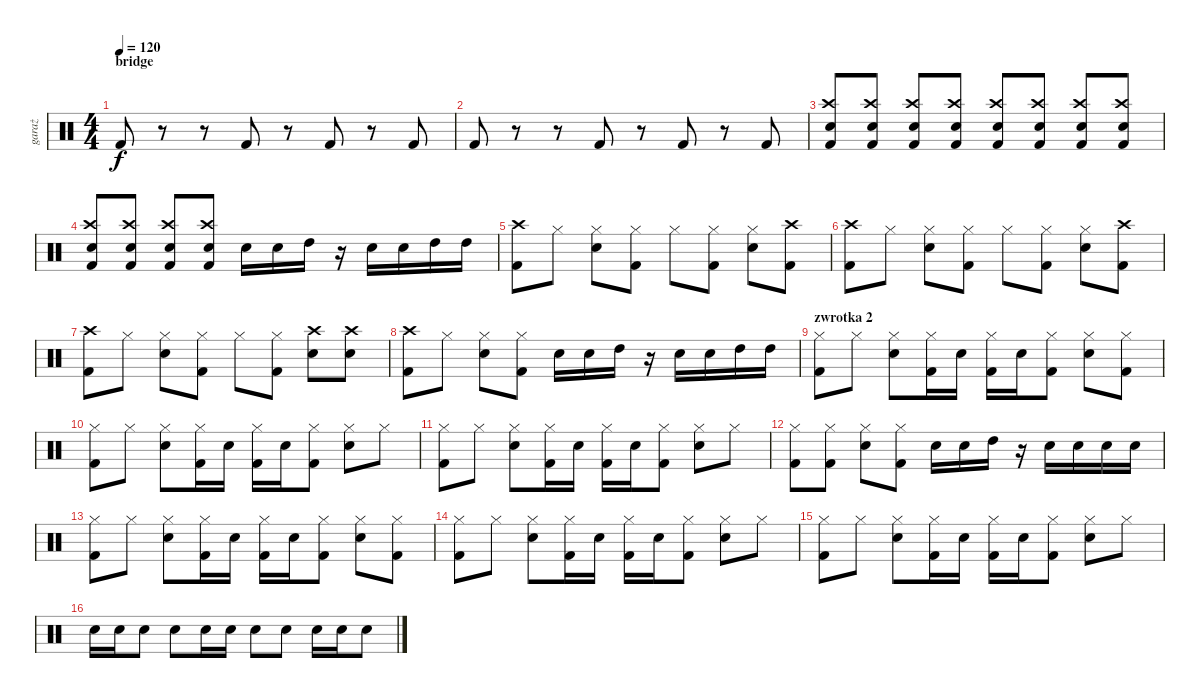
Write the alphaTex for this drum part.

\track ("garaż" "garaż") {instrument percussion}
\staff {score}
\articulation defaults
\ts (4 4)
\section ("" "bridge")
\tempo 120
\clef neutral
\ks c "Kick (hit) 2".8{dy f}
r.8 r.8 "Kick (hit) 2".8 r.8 "Kick (hit) 2".8 r.8 "Kick (hit) 2".8 |
"Kick (hit) 2".8 r.8 r.8 "Kick (hit) 2".8 r.8 "Kick (hit) 2".8 r.8 "Kick (hit) 2".8 |
("Crash high (hit)" "Snare (hit) 2" "Kick (hit) 2").8 ("Crash high (hit)" "Snare (hit) 2" "Kick (hit) 2").8 ("Crash high (hit)" "Snare (hit) 2" "Kick (hit) 2").8 ("Crash high (hit)" "Snare (hit) 2" "Kick (hit) 2").8 ("Crash high (hit)" "Snare (hit) 2" "Kick (hit) 2").8 ("Crash high (hit)" "Snare (hit) 2" "Kick (hit) 2").8 ("Crash high (hit)" "Snare (hit) 2" "Kick (hit) 2").8 ("Crash high (hit)" "Snare (hit) 2" "Kick (hit) 2").8 |
("Crash high (hit)" "Snare (hit) 2" "Kick (hit) 2").8 ("Crash high (hit)" "Snare (hit) 2" "Kick (hit) 2").8 ("Crash high (hit)" "Snare (hit) 2" "Kick (hit) 2").8 ("Crash high (hit)" "Snare (hit) 2" "Kick (hit) 2").8 "Snare (hit) 2".16 "Snare (hit) 2".16 "High Tom (hit)".16 r.16 "Snare (hit) 2".16 "Snare (hit) 2".16 "High Tom (hit)".16 "High Tom (hit)".16 |
("Crash high (hit)" "Kick (hit) 2").8 "Hi-Hat (closed)".8 ("Hi-Hat (closed)" "Snare (hit) 2").8 ("Hi-Hat (closed)" "Kick (hit) 2").8 "Hi-Hat (closed)".8 ("Hi-Hat (closed)" "Kick (hit) 2").8 ("Hi-Hat (closed)" "Snare (hit) 2").8 ("Crash high (hit)" "Kick (hit) 2").8 |
("Crash high (hit)" "Kick (hit) 2").8 "Hi-Hat (closed)".8 ("Hi-Hat (closed)" "Snare (hit) 2").8 ("Hi-Hat (closed)" "Kick (hit) 2").8 "Hi-Hat (closed)".8 ("Hi-Hat (closed)" "Kick (hit) 2").8 ("Hi-Hat (closed)" "Snare (hit) 2").8 ("Crash high (hit)" "Kick (hit) 2").8 |
("Crash high (hit)" "Kick (hit) 2").8 "Hi-Hat (closed)".8 ("Hi-Hat (closed)" "Snare (hit) 2").8 ("Hi-Hat (closed)" "Kick (hit) 2").8 "Hi-Hat (closed)".8 ("Hi-Hat (closed)" "Kick (hit) 2").8 ("Crash high (hit)" "Snare (hit) 2").8 ("Crash high (hit)" "Snare (hit) 2").8 |
("Crash high (hit)" "Kick (hit) 2").8 "Hi-Hat (closed)".8 ("Hi-Hat (closed)" "Snare (hit) 2").8 ("Hi-Hat (closed)" "Kick (hit) 2").8 "Snare (hit) 2".16 "Snare (hit) 2".16 "High Tom (hit)".16 r.16 "Snare (hit) 2".16 "Snare (hit) 2".16 "High Tom (hit)".16 "High Tom (hit)".16 |
\section ("" "zwrotka 2")
("Hi-Hat (closed)" "Kick (hit) 2").8 "Hi-Hat (closed)".8 ("Hi-Hat (closed)" "Snare (hit) 2").8 ("Hi-Hat (closed)" "Kick (hit) 2").16 "Snare (hit) 2".16 ("Hi-Hat (closed)" "Kick (hit) 2").16 "Snare (hit) 2".16 ("Hi-Hat (closed)" "Kick (hit) 2").8 ("Hi-Hat (closed)" "Snare (hit) 2").8 ("Hi-Hat (closed)" "Kick (hit) 2").8 |
("Hi-Hat (closed)" "Kick (hit) 2").8 "Hi-Hat (closed)".8 ("Hi-Hat (closed)" "Snare (hit) 2").8 ("Hi-Hat (closed)" "Kick (hit) 2").16 "Snare (hit) 2".16 ("Hi-Hat (closed)" "Kick (hit) 2").16 "Snare (hit) 2".16 ("Hi-Hat (closed)" "Kick (hit) 2").8 ("Hi-Hat (closed)" "Snare (hit) 2").8 "Hi-Hat (closed)".8 |
("Hi-Hat (closed)" "Kick (hit) 2").8 "Hi-Hat (closed)".8 ("Hi-Hat (closed)" "Snare (hit) 2").8 ("Hi-Hat (closed)" "Kick (hit) 2").16 "Snare (hit) 2".16 ("Hi-Hat (closed)" "Kick (hit) 2").16 "Snare (hit) 2".16 ("Hi-Hat (closed)" "Kick (hit) 2").8 ("Hi-Hat (closed)" "Snare (hit) 2").8 "Hi-Hat (closed)".8 |
("Hi-Hat (closed)" "Kick (hit) 2").8 ("Hi-Hat (closed)" "Kick (hit) 2").8 ("Hi-Hat (closed)" "Snare (hit) 2").8 ("Hi-Hat (closed)" "Kick (hit) 2").8 "Snare (hit) 2".16 "Snare (hit) 2".16 "High Tom (hit)".16 r.16 "Snare (hit) 2".16 "Snare (hit) 2".16 "Snare (hit) 2".16 "Snare (hit) 2".16 |
("Hi-Hat (closed)" "Kick (hit) 2").8 "Hi-Hat (closed)".8 ("Hi-Hat (closed)" "Snare (hit) 2").8 ("Hi-Hat (closed)" "Kick (hit) 2").16 "Snare (hit) 2".16 ("Hi-Hat (closed)" "Kick (hit) 2").16 "Snare (hit) 2".16 ("Hi-Hat (closed)" "Kick (hit) 2").8 ("Hi-Hat (closed)" "Snare (hit) 2").8 ("Hi-Hat (closed)" "Kick (hit) 2").8 |
("Hi-Hat (closed)" "Kick (hit) 2").8 "Hi-Hat (closed)".8 ("Hi-Hat (closed)" "Snare (hit) 2").8 ("Hi-Hat (closed)" "Kick (hit) 2").16 "Snare (hit) 2".16 ("Hi-Hat (closed)" "Kick (hit) 2").16 "Snare (hit) 2".16 ("Hi-Hat (closed)" "Kick (hit) 2").8 ("Hi-Hat (closed)" "Snare (hit) 2").8 "Hi-Hat (closed)".8 |
("Hi-Hat (closed)" "Kick (hit) 2").8 "Hi-Hat (closed)".8 ("Hi-Hat (closed)" "Snare (hit) 2").8 ("Hi-Hat (closed)" "Kick (hit) 2").16 "Snare (hit) 2".16 ("Hi-Hat (closed)" "Kick (hit) 2").16 "Snare (hit) 2".16 ("Hi-Hat (closed)" "Kick (hit) 2").8 ("Hi-Hat (closed)" "Snare (hit) 2").8 "Hi-Hat (closed)".8 |
"Snare (hit) 2".16 "Snare (hit) 2".16 "Snare (hit) 2".8 "Snare (hit) 2".8 "Snare (hit) 2".16 "Snare (hit) 2".16 "Snare (hit) 2".8 "Snare (hit) 2".8 "Snare (hit) 2".16 "Snare (hit) 2".16 "Snare (hit) 2".8
